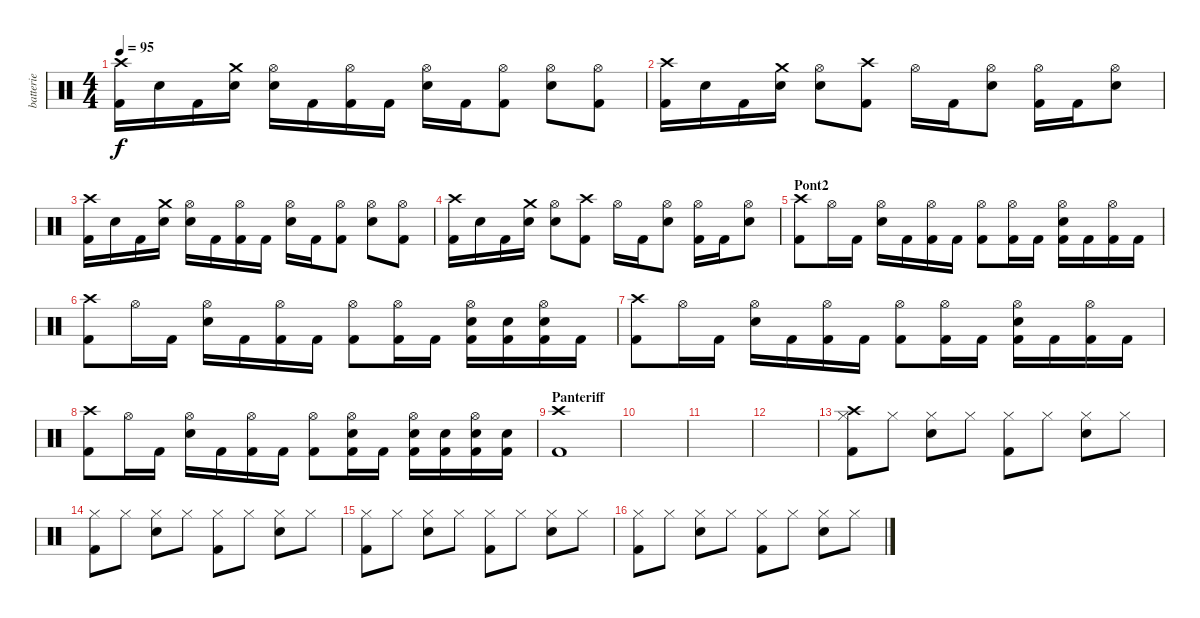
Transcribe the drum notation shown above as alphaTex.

\track ("batterie" "batterie") {instrument percussion}
\staff {score}
\articulation defaults
\ts (4 4)
\tempo 95
\clef neutral
\ks c
("Crash high (hit)" "Kick (hit) 2").16{dy f} "Electric Snare (hit)".16 "Kick (hit) 2".16 ("Crash medium (hit)" "Electric Snare (hit)").16 ("Electric Snare (hit)" "Hi-Hat (open)").16 "Kick (hit) 2".16 ("Kick (hit) 2" "Hi-Hat (open)").16 "Kick (hit) 2".16 ("Electric Snare (hit)" "Hi-Hat (open)").16 "Kick (hit) 2".16 ("Kick (hit) 2" "Hi-Hat (open)").8 ("Electric Snare (hit)" "Hi-Hat (open)").8 ("Kick (hit) 2" "Hi-Hat (open)").8 |
("Crash high (hit)" "Kick (hit) 2").16 "Electric Snare (hit)".16 "Kick (hit) 2".16 ("Crash medium (hit)" "Electric Snare (hit)").16 ("Electric Snare (hit)" "Hi-Hat (open)").8 ("Crash high (hit)" "Kick (hit) 2").8 "Hi-Hat (open)".16 "Kick (hit) 2".16 ("Electric Snare (hit)" "Hi-Hat (open)").8 ("Kick (hit) 2" "Hi-Hat (open)").16 "Kick (hit) 2".16 ("Electric Snare (hit)" "Hi-Hat (open)").8 |
("Crash high (hit)" "Kick (hit) 2").16 "Electric Snare (hit)".16 "Kick (hit) 2".16 ("Crash medium (hit)" "Electric Snare (hit)").16 ("Electric Snare (hit)" "Hi-Hat (open)").16 "Kick (hit) 2".16 ("Kick (hit) 2" "Hi-Hat (open)").16 "Kick (hit) 2".16 ("Electric Snare (hit)" "Hi-Hat (open)").16 "Kick (hit) 2".16 ("Kick (hit) 2" "Hi-Hat (open)").8 ("Electric Snare (hit)" "Hi-Hat (open)").8 ("Kick (hit) 2" "Hi-Hat (open)").8 |
("Crash high (hit)" "Kick (hit) 2").16 "Electric Snare (hit)".16 "Kick (hit) 2".16 ("Crash medium (hit)" "Electric Snare (hit)").16 ("Electric Snare (hit)" "Hi-Hat (open)").8 ("Crash high (hit)" "Kick (hit) 2").8 "Hi-Hat (open)".16 "Kick (hit) 2".16 ("Electric Snare (hit)" "Hi-Hat (open)").8 ("Kick (hit) 2" "Hi-Hat (open)").16 "Kick (hit) 2".16 ("Electric Snare (hit)" "Hi-Hat (open)").8 |
\section ("" "Pont2")
("Crash high (hit)" "Kick (hit) 2").8 "Hi-Hat (open)".16 "Kick (hit) 2".16 ("Electric Snare (hit)" "Hi-Hat (open)").16 "Kick (hit) 2".16 ("Kick (hit) 2" "Hi-Hat (open)").16 "Kick (hit) 2".16 ("Kick (hit) 2" "Hi-Hat (open)").8 ("Kick (hit) 2" "Hi-Hat (open)").16 "Kick (hit) 2".16 ("Electric Snare (hit)" "Kick (hit) 2" "Hi-Hat (open)").16 "Kick (hit) 2".16 ("Kick (hit) 2" "Hi-Hat (open)").16 "Kick (hit) 2".16 |
("Crash high (hit)" "Kick (hit) 2").8 "Hi-Hat (open)".16 "Kick (hit) 2".16 ("Electric Snare (hit)" "Hi-Hat (open)").16 "Kick (hit) 2".16 ("Kick (hit) 2" "Hi-Hat (open)").16 "Kick (hit) 2".16 ("Kick (hit) 2" "Hi-Hat (open)").8 ("Kick (hit) 2" "Hi-Hat (open)").16 "Kick (hit) 2".16 ("Electric Snare (hit)" "Kick (hit) 2" "Hi-Hat (open)").16 ("Electric Snare (hit)" "Kick (hit) 2").16 ("Electric Snare (hit)" "Kick (hit) 2" "Hi-Hat (open)").16 "Kick (hit) 2".16 |
("Crash high (hit)" "Kick (hit) 2").8 "Hi-Hat (open)".16 "Kick (hit) 2".16 ("Electric Snare (hit)" "Hi-Hat (open)").16 "Kick (hit) 2".16 ("Kick (hit) 2" "Hi-Hat (open)").16 "Kick (hit) 2".16 ("Kick (hit) 2" "Hi-Hat (open)").8 ("Kick (hit) 2" "Hi-Hat (open)").16 "Kick (hit) 2".16 ("Electric Snare (hit)" "Kick (hit) 2" "Hi-Hat (open)").16 "Kick (hit) 2".16 ("Kick (hit) 2" "Hi-Hat (open)").16 "Kick (hit) 2".16 |
("Crash high (hit)" "Kick (hit) 2").8 "Hi-Hat (open)".16 "Kick (hit) 2".16 ("Electric Snare (hit)" "Hi-Hat (open)").16 "Kick (hit) 2".16 ("Kick (hit) 2" "Hi-Hat (open)").16 "Kick (hit) 2".16 ("Kick (hit) 2" "Hi-Hat (open)").8 ("Electric Snare (hit)" "Kick (hit) 2" "Hi-Hat (open)").16 "Kick (hit) 2".16 ("Electric Snare (hit)" "Kick (hit) 2" "Hi-Hat (open)").16 ("Electric Snare (hit)" "Kick (hit) 2").16 ("Electric Snare (hit)" "Kick (hit) 2" "Hi-Hat (open)").16 ("Electric Snare (hit)" "Kick (hit) 2").16 |
\section ("" "Panteriff")
("Crash high (hit)" "Kick (hit) 2").1 |
|
|
|
("Crash high (hit)" "Kick (hit) 2" "Hi-Hat (closed)").8 "Hi-Hat (closed)".8 ("Snare (hit) 2" "Hi-Hat (closed)").8 "Hi-Hat (closed)".8 ("Kick (hit) 2" "Hi-Hat (closed)").8 "Hi-Hat (closed)".8 ("Snare (hit) 2" "Hi-Hat (closed)").8 "Hi-Hat (closed)".8 |
("Kick (hit) 2" "Hi-Hat (closed)").8 "Hi-Hat (closed)".8 ("Snare (hit) 2" "Hi-Hat (closed)").8 "Hi-Hat (closed)".8 ("Kick (hit) 2" "Hi-Hat (closed)").8 "Hi-Hat (closed)".8 ("Snare (hit) 2" "Hi-Hat (closed)").8 "Hi-Hat (closed)".8 |
("Kick (hit) 2" "Hi-Hat (closed)").8 "Hi-Hat (closed)".8 ("Snare (hit) 2" "Hi-Hat (closed)").8 "Hi-Hat (closed)".8 ("Kick (hit) 2" "Hi-Hat (closed)").8 "Hi-Hat (closed)".8 ("Snare (hit) 2" "Hi-Hat (closed)").8 "Hi-Hat (closed)".8 |
("Kick (hit) 2" "Hi-Hat (closed)").8 "Hi-Hat (closed)".8 ("Snare (hit) 2" "Hi-Hat (closed)").8 "Hi-Hat (closed)".8 ("Kick (hit) 2" "Hi-Hat (closed)").8 "Hi-Hat (closed)".8 ("Snare (hit) 2" "Hi-Hat (closed)").8 "Hi-Hat (closed)".8
